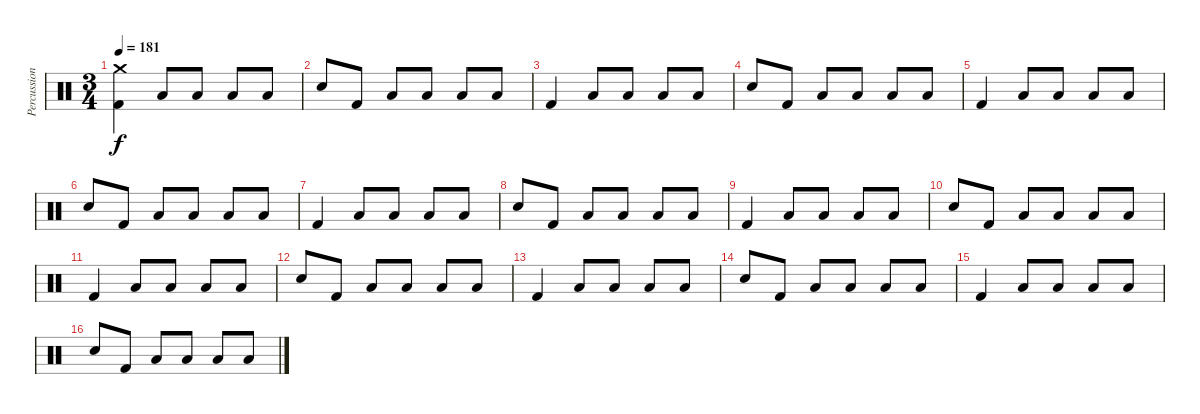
\track ("Percussion" "Percussion") {instrument percussion}
\staff {score}
\articulation defaults
\ts (3 4)
\tempo 181
\clef neutral
\ks c
("Crash medium (hit)" "Kick (hit) 2").4{dy f} "Low Floor Tom (hit)".8 "Low Floor Tom (hit)".8 "Low Floor Tom (hit)".8 "Low Floor Tom (hit)".8 |
"Snare (hit) 2".8 "Kick (hit) 2".8 "Low Floor Tom (hit)".8 "Low Floor Tom (hit)".8 "Low Floor Tom (hit)".8 "Low Floor Tom (hit)".8 |
"Kick (hit) 2".4 "Low Floor Tom (hit)".8 "Low Floor Tom (hit)".8 "Low Floor Tom (hit)".8 "Low Floor Tom (hit)".8 |
"Snare (hit) 2".8 "Kick (hit) 2".8 "Low Floor Tom (hit)".8 "Low Floor Tom (hit)".8 "Low Floor Tom (hit)".8 "Low Floor Tom (hit)".8 |
"Kick (hit) 2".4 "Low Floor Tom (hit)".8 "Low Floor Tom (hit)".8 "Low Floor Tom (hit)".8 "Low Floor Tom (hit)".8 |
"Snare (hit) 2".8 "Kick (hit) 2".8 "Low Floor Tom (hit)".8 "Low Floor Tom (hit)".8 "Low Floor Tom (hit)".8 "Low Floor Tom (hit)".8 |
"Kick (hit) 2".4 "Low Floor Tom (hit)".8 "Low Floor Tom (hit)".8 "Low Floor Tom (hit)".8 "Low Floor Tom (hit)".8 |
"Snare (hit) 2".8 "Kick (hit) 2".8 "Low Floor Tom (hit)".8 "Low Floor Tom (hit)".8 "Low Floor Tom (hit)".8 "Low Floor Tom (hit)".8 |
"Kick (hit) 2".4 "Low Floor Tom (hit)".8 "Low Floor Tom (hit)".8 "Low Floor Tom (hit)".8 "Low Floor Tom (hit)".8 |
"Snare (hit) 2".8 "Kick (hit) 2".8 "Low Floor Tom (hit)".8 "Low Floor Tom (hit)".8 "Low Floor Tom (hit)".8 "Low Floor Tom (hit)".8 |
"Kick (hit) 2".4 "Low Floor Tom (hit)".8 "Low Floor Tom (hit)".8 "Low Floor Tom (hit)".8 "Low Floor Tom (hit)".8 |
"Snare (hit) 2".8 "Kick (hit) 2".8 "Low Floor Tom (hit)".8 "Low Floor Tom (hit)".8 "Low Floor Tom (hit)".8 "Low Floor Tom (hit)".8 |
"Kick (hit) 2".4 "Low Floor Tom (hit)".8 "Low Floor Tom (hit)".8 "Low Floor Tom (hit)".8 "Low Floor Tom (hit)".8 |
"Snare (hit) 2".8 "Kick (hit) 2".8 "Low Floor Tom (hit)".8 "Low Floor Tom (hit)".8 "Low Floor Tom (hit)".8 "Low Floor Tom (hit)".8 |
"Kick (hit) 2".4 "Low Floor Tom (hit)".8 "Low Floor Tom (hit)".8 "Low Floor Tom (hit)".8 "Low Floor Tom (hit)".8 |
"Snare (hit) 2".8 "Kick (hit) 2".8 "Low Floor Tom (hit)".8 "Low Floor Tom (hit)".8 "Low Floor Tom (hit)".8 "Low Floor Tom (hit)".8
